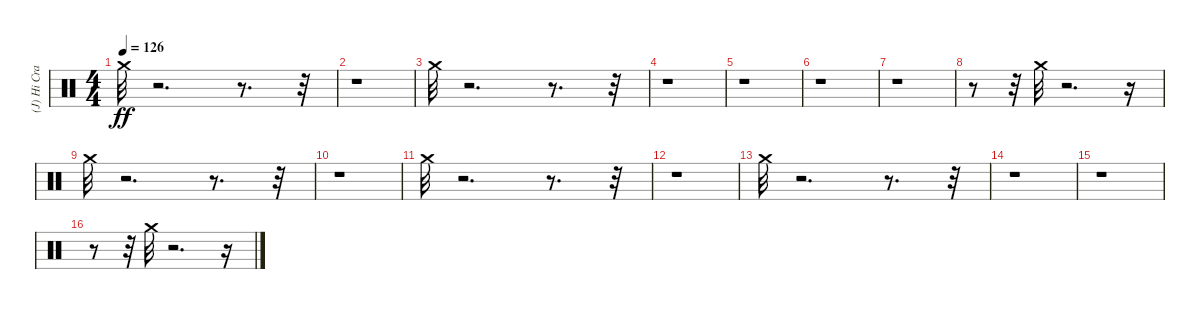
\track ("(J) Hi Crash Cymbal" "(J) Hi Cra") {instrument percussion}
\staff {score}
\articulation defaults
\ts (4 4)
\tempo 126
\clef neutral
\ks c "Crash medium (hit)".32{dy ff}
r.2{d} r.8{d} r.32 |
r.1 |
"Crash medium (hit)".32 r.2{d} r.8{d} r.32 |
r.1 |
r.1 |
r.1 |
r.1 |
r.8 r.32 "Crash medium (hit)".32 r.2{d} r.16 |
"Crash medium (hit)".32 r.2{d} r.8{d} r.32 |
r.1 |
"Crash medium (hit)".32 r.2{d} r.8{d} r.32 |
r.1 |
"Crash medium (hit)".32 r.2{d} r.8{d} r.32 |
r.1 |
r.1 |
r.8 r.32 "Crash medium (hit)".32 r.2{d} r.16
